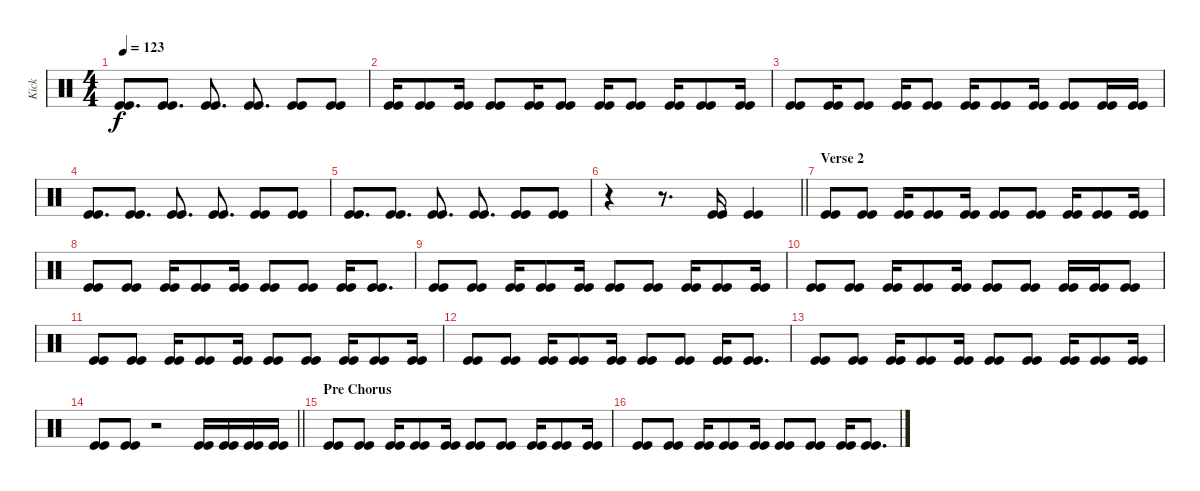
\track ("Kick" "Kick") {instrument percussion}
\staff {score}
\articulation defaults
\ts (4 4)
\tempo 123
\clef neutral
\ks c
("Kick (hit)" "Kick (hit)").8{d dy f} ("Kick (hit)" "Kick (hit)").8{d} ("Kick (hit)" "Kick (hit)").8{d} ("Kick (hit)" "Kick (hit)").8{d} ("Kick (hit)" "Kick (hit)").8 ("Kick (hit)" "Kick (hit)").8 |
("Kick (hit)" "Kick (hit)").16 ("Kick (hit)" "Kick (hit)").8 ("Kick (hit)" "Kick (hit)").16 ("Kick (hit)" "Kick (hit)").8 ("Kick (hit)" "Kick (hit)").16 ("Kick (hit)" "Kick (hit)").8 ("Kick (hit)" "Kick (hit)").16 ("Kick (hit)" "Kick (hit)").8 ("Kick (hit)" "Kick (hit)").16 ("Kick (hit)" "Kick (hit)").8 ("Kick (hit)" "Kick (hit)").16 |
("Kick (hit)" "Kick (hit)").8 ("Kick (hit)" "Kick (hit)").16 ("Kick (hit)" "Kick (hit)").8 ("Kick (hit)" "Kick (hit)").16 ("Kick (hit)" "Kick (hit)").8 ("Kick (hit)" "Kick (hit)").16 ("Kick (hit)" "Kick (hit)").8 ("Kick (hit)" "Kick (hit)").16 ("Kick (hit)" "Kick (hit)").8 ("Kick (hit)" "Kick (hit)").16 ("Kick (hit)" "Kick (hit)").16 |
("Kick (hit)" "Kick (hit)").8{d} ("Kick (hit)" "Kick (hit)").8{d} ("Kick (hit)" "Kick (hit)").8{d} ("Kick (hit)" "Kick (hit)").8{d} ("Kick (hit)" "Kick (hit)").8 ("Kick (hit)" "Kick (hit)").8 |
("Kick (hit)" "Kick (hit)").8{d} ("Kick (hit)" "Kick (hit)").8{d} ("Kick (hit)" "Kick (hit)").8{d} ("Kick (hit)" "Kick (hit)").8{d} ("Kick (hit)" "Kick (hit)").8 ("Kick (hit)" "Kick (hit)").8 |
\barLineRight lightlight
r.4 r.8{d} ("Kick (hit)" "Kick (hit)").16 ("Kick (hit)" "Kick (hit)").4 |
\section ("" "Verse 2")
("Kick (hit)" "Kick (hit)").8 ("Kick (hit)" "Kick (hit)").8 ("Kick (hit)" "Kick (hit)").16 ("Kick (hit)" "Kick (hit)").8 ("Kick (hit)" "Kick (hit)").16 ("Kick (hit)" "Kick (hit)").8 ("Kick (hit)" "Kick (hit)").8 ("Kick (hit)" "Kick (hit)").16 ("Kick (hit)" "Kick (hit)").8 ("Kick (hit)" "Kick (hit)").16 |
("Kick (hit)" "Kick (hit)").8 ("Kick (hit)" "Kick (hit)").8 ("Kick (hit)" "Kick (hit)").16 ("Kick (hit)" "Kick (hit)").8 ("Kick (hit)" "Kick (hit)").16 ("Kick (hit)" "Kick (hit)").8 ("Kick (hit)" "Kick (hit)").8 ("Kick (hit)" "Kick (hit)").16 ("Kick (hit)" "Kick (hit)").8{d} |
("Kick (hit)" "Kick (hit)").8 ("Kick (hit)" "Kick (hit)").8 ("Kick (hit)" "Kick (hit)").16 ("Kick (hit)" "Kick (hit)").8 ("Kick (hit)" "Kick (hit)").16 ("Kick (hit)" "Kick (hit)").8 ("Kick (hit)" "Kick (hit)").8 ("Kick (hit)" "Kick (hit)").16 ("Kick (hit)" "Kick (hit)").8 ("Kick (hit)" "Kick (hit)").16 |
("Kick (hit)" "Kick (hit)").8 ("Kick (hit)" "Kick (hit)").8 ("Kick (hit)" "Kick (hit)").16 ("Kick (hit)" "Kick (hit)").8 ("Kick (hit)" "Kick (hit)").16 ("Kick (hit)" "Kick (hit)").8 ("Kick (hit)" "Kick (hit)").8 ("Kick (hit)" "Kick (hit)").16 ("Kick (hit)" "Kick (hit)").16 ("Kick (hit)" "Kick (hit)").8 |
("Kick (hit)" "Kick (hit)").8 ("Kick (hit)" "Kick (hit)").8 ("Kick (hit)" "Kick (hit)").16 ("Kick (hit)" "Kick (hit)").8 ("Kick (hit)" "Kick (hit)").16 ("Kick (hit)" "Kick (hit)").8 ("Kick (hit)" "Kick (hit)").8 ("Kick (hit)" "Kick (hit)").16 ("Kick (hit)" "Kick (hit)").8 ("Kick (hit)" "Kick (hit)").16 |
("Kick (hit)" "Kick (hit)").8 ("Kick (hit)" "Kick (hit)").8 ("Kick (hit)" "Kick (hit)").16 ("Kick (hit)" "Kick (hit)").8 ("Kick (hit)" "Kick (hit)").16 ("Kick (hit)" "Kick (hit)").8 ("Kick (hit)" "Kick (hit)").8 ("Kick (hit)" "Kick (hit)").16 ("Kick (hit)" "Kick (hit)").8{d} |
("Kick (hit)" "Kick (hit)").8 ("Kick (hit)" "Kick (hit)").8 ("Kick (hit)" "Kick (hit)").16 ("Kick (hit)" "Kick (hit)").8 ("Kick (hit)" "Kick (hit)").16 ("Kick (hit)" "Kick (hit)").8 ("Kick (hit)" "Kick (hit)").8 ("Kick (hit)" "Kick (hit)").16 ("Kick (hit)" "Kick (hit)").8 ("Kick (hit)" "Kick (hit)").16 |
\barLineRight lightlight
("Kick (hit)" "Kick (hit)").8 ("Kick (hit)" "Kick (hit)").8 r.2 ("Kick (hit)" "Kick (hit)").16 ("Kick (hit)" "Kick (hit)").16 ("Kick (hit)" "Kick (hit)").16 ("Kick (hit)" "Kick (hit)").16 |
\section ("" "Pre Chorus")
("Kick (hit)" "Kick (hit)").8 ("Kick (hit)" "Kick (hit)").8 ("Kick (hit)" "Kick (hit)").16 ("Kick (hit)" "Kick (hit)").8 ("Kick (hit)" "Kick (hit)").16 ("Kick (hit)" "Kick (hit)").8 ("Kick (hit)" "Kick (hit)").8 ("Kick (hit)" "Kick (hit)").16 ("Kick (hit)" "Kick (hit)").8 ("Kick (hit)" "Kick (hit)").16 |
("Kick (hit)" "Kick (hit)").8 ("Kick (hit)" "Kick (hit)").8 ("Kick (hit)" "Kick (hit)").16 ("Kick (hit)" "Kick (hit)").8 ("Kick (hit)" "Kick (hit)").16 ("Kick (hit)" "Kick (hit)").8 ("Kick (hit)" "Kick (hit)").8 ("Kick (hit)" "Kick (hit)").16 ("Kick (hit)" "Kick (hit)").8{d}
